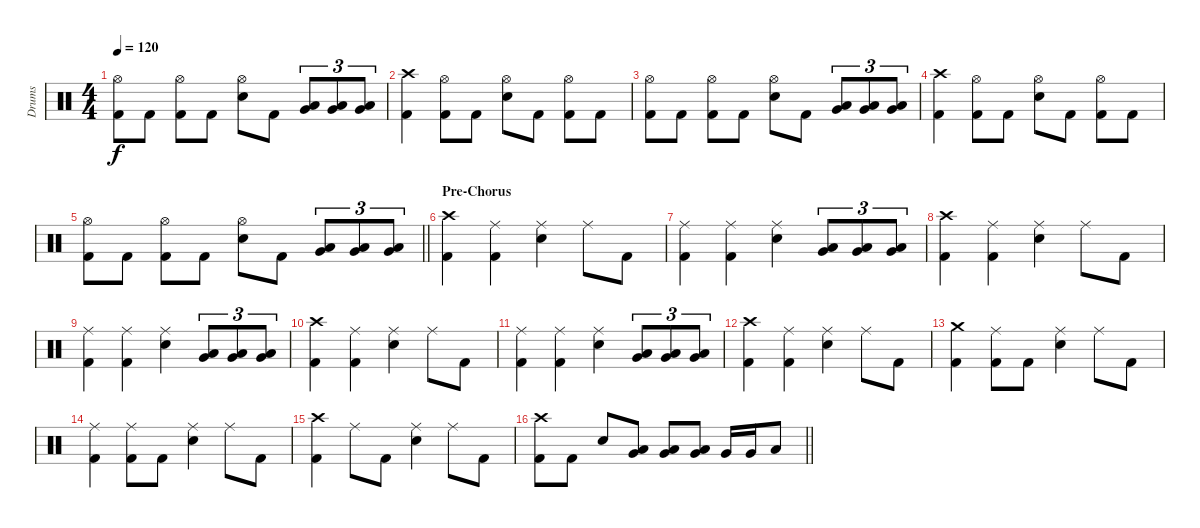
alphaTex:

\track ("Drums" "Drums") {instrument percussion}
\staff {score}
\articulation defaults
\ts (4 4)
\tempo 120
\clef neutral
\ks c
("Hi-Hat (open)" "Kick (hit) 2").8{dy f} "Kick (hit) 2".8 ("Hi-Hat (open)" "Kick (hit) 2").8 "Kick (hit) 2".8 ("Hi-Hat (open)" "Electric Snare (hit)").8 "Kick (hit) 2".8 ("Low Tom (hit)" "Very Low Tom (hit)").8{tu (3 2)} ("Low Tom (hit)" "Very Low Tom (hit)").8{tu (3 2)} ("Low Tom (hit)" "Very Low Tom (hit)").8{tu (3 2)} |
("Crash high (hit)" "Kick (hit) 2").4 ("Hi-Hat (open)" "Kick (hit) 2").8 "Kick (hit) 2".8 ("Hi-Hat (open)" "Electric Snare (hit)").8 "Kick (hit) 2".8 ("Hi-Hat (open)" "Kick (hit) 2").8 "Kick (hit) 2".8 |
("Hi-Hat (open)" "Kick (hit) 2").8 "Kick (hit) 2".8 ("Hi-Hat (open)" "Kick (hit) 2").8 "Kick (hit) 2".8 ("Hi-Hat (open)" "Electric Snare (hit)").8 "Kick (hit) 2".8 ("Low Tom (hit)" "Very Low Tom (hit)").8{tu (3 2)} ("Low Tom (hit)" "Very Low Tom (hit)").8{tu (3 2)} ("Low Tom (hit)" "Very Low Tom (hit)").8{tu (3 2)} |
("Crash high (hit)" "Kick (hit) 2").4 ("Hi-Hat (open)" "Kick (hit) 2").8 "Kick (hit) 2".8 ("Hi-Hat (open)" "Electric Snare (hit)").8 "Kick (hit) 2".8 ("Hi-Hat (open)" "Kick (hit) 2").8 "Kick (hit) 2".8 |
\barLineRight lightlight
("Hi-Hat (open)" "Kick (hit) 2").8 "Kick (hit) 2".8 ("Hi-Hat (open)" "Kick (hit) 2").8 "Kick (hit) 2".8 ("Hi-Hat (open)" "Electric Snare (hit)").8 "Kick (hit) 2".8 ("Low Tom (hit)" "Very Low Tom (hit)").8{tu (3 2)} ("Low Tom (hit)" "Very Low Tom (hit)").8{tu (3 2)} ("Low Tom (hit)" "Very Low Tom (hit)").8{tu (3 2)} |
\section ("" "Pre-Chorus")
("Crash high (hit)" "Kick (hit) 2").4 ("Ride (middle)" "Kick (hit) 2").4 ("Ride (middle)" "Electric Snare (hit)").4 "Ride (middle)".8 "Kick (hit) 2".8 |
("Ride (middle)" "Kick (hit) 2").4 ("Ride (middle)" "Kick (hit) 2").4 ("Ride (middle)" "Electric Snare (hit)").4 ("Low Tom (hit)" "Very Low Tom (hit)").8{tu (3 2)} ("Low Tom (hit)" "Very Low Tom (hit)").8{tu (3 2)} ("Low Tom (hit)" "Very Low Tom (hit)").8{tu (3 2)} |
("Crash high (hit)" "Kick (hit) 2").4 ("Ride (middle)" "Kick (hit) 2").4 ("Ride (middle)" "Electric Snare (hit)").4 "Ride (middle)".8 "Kick (hit) 2".8 |
("Ride (middle)" "Kick (hit) 2").4 ("Ride (middle)" "Kick (hit) 2").4 ("Ride (middle)" "Electric Snare (hit)").4 ("Low Tom (hit)" "Very Low Tom (hit)").8{tu (3 2)} ("Low Tom (hit)" "Very Low Tom (hit)").8{tu (3 2)} ("Low Tom (hit)" "Very Low Tom (hit)").8{tu (3 2)} |
("Crash high (hit)" "Kick (hit) 2").4 ("Ride (middle)" "Kick (hit) 2").4 ("Ride (middle)" "Electric Snare (hit)").4 "Ride (middle)".8 "Kick (hit) 2".8 |
("Ride (middle)" "Kick (hit) 2").4 ("Ride (middle)" "Kick (hit) 2").4 ("Ride (middle)" "Electric Snare (hit)").4 ("Low Tom (hit)" "Very Low Tom (hit)").8{tu (3 2)} ("Low Tom (hit)" "Very Low Tom (hit)").8{tu (3 2)} ("Low Tom (hit)" "Very Low Tom (hit)").8{tu (3 2)} |
("Crash high (hit)" "Kick (hit) 2").4 ("Ride (middle)" "Kick (hit) 2").4 ("Ride (middle)" "Electric Snare (hit)").4 "Ride (middle)".8 "Kick (hit) 2".8 |
("Crash medium (hit)" "Kick (hit) 2").4 ("Ride (middle)" "Kick (hit) 2").8 "Kick (hit) 2".8 ("Ride (middle)" "Electric Snare (hit)").4 "Ride (middle)".8 "Kick (hit) 2".8 |
("Ride (middle)" "Kick (hit) 2").4 ("Ride (middle)" "Kick (hit) 2").8 "Kick (hit) 2".8 ("Ride (middle)" "Electric Snare (hit)").4 "Ride (middle)".8 "Kick (hit) 2".8 |
("Crash high (hit)" "Kick (hit) 2").4 "Ride (middle)".8 "Kick (hit) 2".8 ("Ride (middle)" "Electric Snare (hit)").4 "Ride (middle)".8 "Kick (hit) 2".8 |
\barLineRight lightlight
("Crash high (hit)" "Kick (hit) 2").8 "Kick (hit) 2".8 "Electric Snare (hit)".8 ("Low Tom (hit)" "Very Low Tom (hit)").8 ("Very Low Tom (hit)" "Low Floor Tom (hit)").8 ("Very Low Tom (hit)" "Low Floor Tom (hit)").8 "Very Low Tom (hit)".16 "Very Low Tom (hit)".16 "Low Tom (hit)".8
